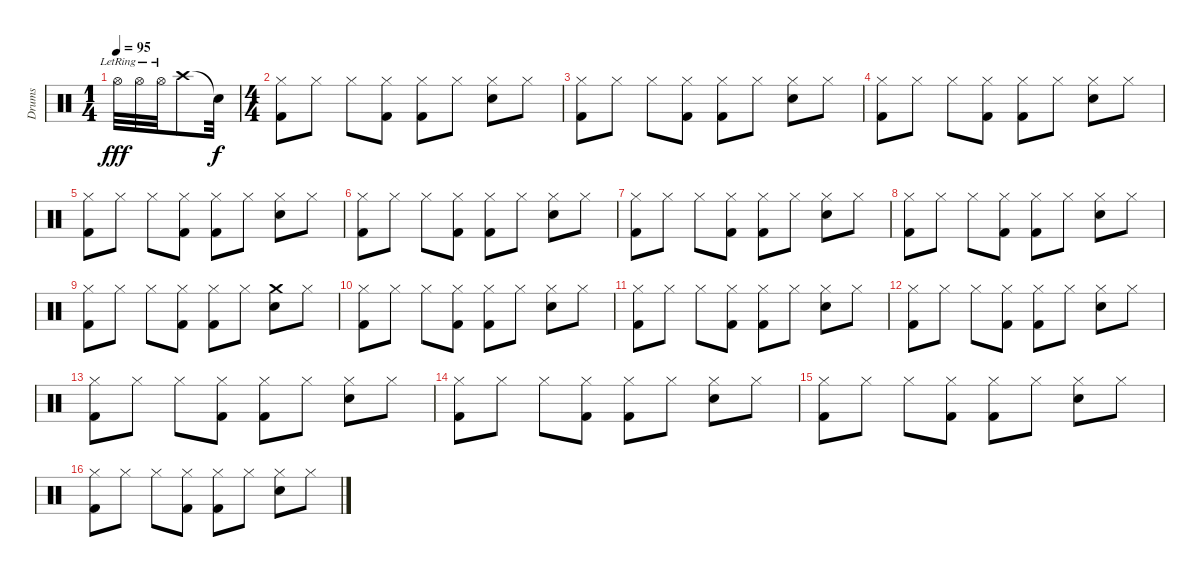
\track ("Drums" "Drums") {instrument percussion}
\staff {score}
\articulation defaults
\ts (1 4)
\tempo 95
\clef neutral
\ks c "Hi-Hat (open)"{lr}.32{dy fff} "Hi-Hat (open)"{lr}.32 "Hi-Hat (open)"{lr}.32 "Crash high (hit)".8 "Snare (hit)"{t}.32{dy f}
|
\ts (4 4)
("Kick (hit) 2" "Hi-Hat (closed)").8 "Hi-Hat (closed)".8 "Hi-Hat (closed)".8 ("Kick (hit) 2" "Hi-Hat (closed)").8 ("Kick (hit) 2" "Hi-Hat (closed)").8 "Hi-Hat (closed)".8 ("Snare (hit) 2" "Hi-Hat (closed)").8 "Hi-Hat (closed)".8 |
("Kick (hit) 2" "Hi-Hat (closed)").8 "Hi-Hat (closed)".8 "Hi-Hat (closed)".8 ("Kick (hit) 2" "Hi-Hat (closed)").8 ("Kick (hit) 2" "Hi-Hat (closed)").8 "Hi-Hat (closed)".8 ("Snare (hit) 2" "Hi-Hat (closed)").8 "Hi-Hat (closed)".8 |
("Kick (hit) 2" "Hi-Hat (closed)").8 "Hi-Hat (closed)".8 "Hi-Hat (closed)".8 ("Kick (hit) 2" "Hi-Hat (closed)").8 ("Kick (hit) 2" "Hi-Hat (closed)").8 "Hi-Hat (closed)".8 ("Snare (hit) 2" "Hi-Hat (closed)").8 "Hi-Hat (closed)".8 |
("Kick (hit) 2" "Hi-Hat (closed)").8 "Hi-Hat (closed)".8 "Hi-Hat (closed)".8 ("Kick (hit) 2" "Hi-Hat (closed)").8 ("Kick (hit) 2" "Hi-Hat (closed)").8 "Hi-Hat (closed)".8 ("Snare (hit) 2" "Hi-Hat (closed)").8 "Hi-Hat (closed)".8 |
("Kick (hit) 2" "Hi-Hat (closed)").8 "Hi-Hat (closed)".8 "Hi-Hat (closed)".8 ("Kick (hit) 2" "Hi-Hat (closed)").8 ("Kick (hit) 2" "Hi-Hat (closed)").8 "Hi-Hat (closed)".8 ("Snare (hit) 2" "Hi-Hat (closed)").8 "Hi-Hat (closed)".8 |
("Kick (hit) 2" "Hi-Hat (closed)").8 "Hi-Hat (closed)".8 "Hi-Hat (closed)".8 ("Kick (hit) 2" "Hi-Hat (closed)").8 ("Kick (hit) 2" "Hi-Hat (closed)").8 "Hi-Hat (closed)".8 ("Snare (hit) 2" "Hi-Hat (closed)").8 "Hi-Hat (closed)".8 |
("Kick (hit) 2" "Hi-Hat (closed)").8 "Hi-Hat (closed)".8 "Hi-Hat (closed)".8 ("Kick (hit) 2" "Hi-Hat (closed)").8 ("Kick (hit) 2" "Hi-Hat (closed)").8 "Hi-Hat (closed)".8 ("Snare (hit) 2" "Hi-Hat (closed)").8 "Hi-Hat (closed)".8 |
("Kick (hit) 2" "Hi-Hat (closed)").8 "Hi-Hat (closed)".8 "Hi-Hat (closed)".8 ("Kick (hit) 2" "Hi-Hat (closed)").8 ("Kick (hit) 2" "Hi-Hat (closed)").8 "Hi-Hat (closed)".8 ("Snare (hit) 2" "Crash medium (hit)").8 "Hi-Hat (closed)".8 |
("Kick (hit) 2" "Hi-Hat (closed)").8 "Hi-Hat (closed)".8 "Hi-Hat (closed)".8 ("Kick (hit) 2" "Hi-Hat (closed)").8 ("Kick (hit) 2" "Hi-Hat (closed)").8 "Hi-Hat (closed)".8 ("Snare (hit) 2" "Hi-Hat (closed)").8 "Hi-Hat (closed)".8 |
("Kick (hit) 2" "Hi-Hat (closed)").8 "Hi-Hat (closed)".8 "Hi-Hat (closed)".8 ("Kick (hit) 2" "Hi-Hat (closed)").8 ("Kick (hit) 2" "Hi-Hat (closed)").8 "Hi-Hat (closed)".8 ("Snare (hit) 2" "Hi-Hat (closed)").8 "Hi-Hat (closed)".8 |
("Kick (hit) 2" "Hi-Hat (closed)").8 "Hi-Hat (closed)".8 "Hi-Hat (closed)".8 ("Kick (hit) 2" "Hi-Hat (closed)").8 ("Kick (hit) 2" "Hi-Hat (closed)").8 "Hi-Hat (closed)".8 ("Snare (hit) 2" "Hi-Hat (closed)").8 "Hi-Hat (closed)".8 |
("Kick (hit) 2" "Hi-Hat (closed)").8 "Hi-Hat (closed)".8 "Hi-Hat (closed)".8 ("Kick (hit) 2" "Hi-Hat (closed)").8 ("Kick (hit) 2" "Hi-Hat (closed)").8 "Hi-Hat (closed)".8 ("Snare (hit) 2" "Hi-Hat (closed)").8 "Hi-Hat (closed)".8 |
("Kick (hit) 2" "Hi-Hat (closed)").8 "Hi-Hat (closed)".8 "Hi-Hat (closed)".8 ("Kick (hit) 2" "Hi-Hat (closed)").8 ("Kick (hit) 2" "Hi-Hat (closed)").8 "Hi-Hat (closed)".8 ("Snare (hit) 2" "Hi-Hat (closed)").8 "Hi-Hat (closed)".8 |
("Kick (hit) 2" "Hi-Hat (closed)").8 "Hi-Hat (closed)".8 "Hi-Hat (closed)".8 ("Kick (hit) 2" "Hi-Hat (closed)").8 ("Kick (hit) 2" "Hi-Hat (closed)").8 "Hi-Hat (closed)".8 ("Snare (hit) 2" "Hi-Hat (closed)").8 "Hi-Hat (closed)".8 |
("Kick (hit) 2" "Hi-Hat (closed)").8 "Hi-Hat (closed)".8 "Hi-Hat (closed)".8 ("Kick (hit) 2" "Hi-Hat (closed)").8 ("Kick (hit) 2" "Hi-Hat (closed)").8 "Hi-Hat (closed)".8 ("Snare (hit) 2" "Hi-Hat (closed)").8 "Hi-Hat (closed)".8
